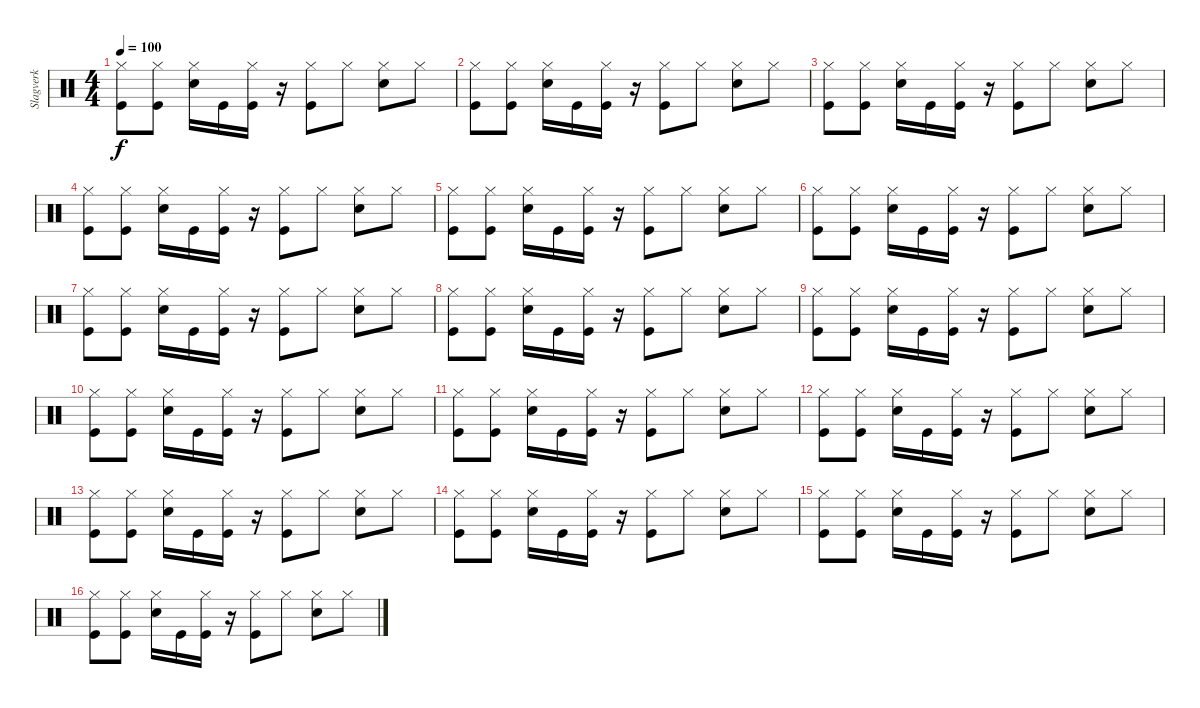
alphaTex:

\track ("Slagverk" "Slagverk") {instrument percussion}
\staff {score}
\articulation defaults
\ts (4 4)
\tempo 100
\clef neutral
\ks c
("Hi-Hat (closed)" "Kick (hit)").8{dy f} ("Hi-Hat (closed)" "Kick (hit)").8 ("Hi-Hat (closed)" "Snare (hit) 2").16 "Kick (hit)".16 ("Hi-Hat (closed)" "Kick (hit)").16 r.16 ("Hi-Hat (closed)" "Kick (hit)").8 "Hi-Hat (closed)".8 ("Hi-Hat (closed)" "Snare (hit) 2").8 "Hi-Hat (closed)".8 |
("Hi-Hat (closed)" "Kick (hit)").8 ("Hi-Hat (closed)" "Kick (hit)").8 ("Hi-Hat (closed)" "Snare (hit) 2").16 "Kick (hit)".16 ("Hi-Hat (closed)" "Kick (hit)").16 r.16 ("Hi-Hat (closed)" "Kick (hit)").8 "Hi-Hat (closed)".8 ("Hi-Hat (closed)" "Snare (hit) 2").8 "Hi-Hat (closed)".8 |
("Hi-Hat (closed)" "Kick (hit)").8 ("Hi-Hat (closed)" "Kick (hit)").8 ("Hi-Hat (closed)" "Snare (hit) 2").16 "Kick (hit)".16 ("Hi-Hat (closed)" "Kick (hit)").16 r.16 ("Hi-Hat (closed)" "Kick (hit)").8 "Hi-Hat (closed)".8 ("Hi-Hat (closed)" "Snare (hit) 2").8 "Hi-Hat (closed)".8 |
("Hi-Hat (closed)" "Kick (hit)").8 ("Hi-Hat (closed)" "Kick (hit)").8 ("Hi-Hat (closed)" "Snare (hit) 2").16 "Kick (hit)".16 ("Hi-Hat (closed)" "Kick (hit)").16 r.16 ("Hi-Hat (closed)" "Kick (hit)").8 "Hi-Hat (closed)".8 ("Hi-Hat (closed)" "Snare (hit) 2").8 "Hi-Hat (closed)".8 |
("Hi-Hat (closed)" "Kick (hit)").8 ("Hi-Hat (closed)" "Kick (hit)").8 ("Hi-Hat (closed)" "Snare (hit) 2").16 "Kick (hit)".16 ("Hi-Hat (closed)" "Kick (hit)").16 r.16 ("Hi-Hat (closed)" "Kick (hit)").8 "Hi-Hat (closed)".8 ("Hi-Hat (closed)" "Snare (hit) 2").8 "Hi-Hat (closed)".8 |
("Hi-Hat (closed)" "Kick (hit)").8 ("Hi-Hat (closed)" "Kick (hit)").8 ("Hi-Hat (closed)" "Snare (hit) 2").16 "Kick (hit)".16 ("Hi-Hat (closed)" "Kick (hit)").16 r.16 ("Hi-Hat (closed)" "Kick (hit)").8 "Hi-Hat (closed)".8 ("Hi-Hat (closed)" "Snare (hit) 2").8 "Hi-Hat (closed)".8 |
("Hi-Hat (closed)" "Kick (hit)").8 ("Hi-Hat (closed)" "Kick (hit)").8 ("Hi-Hat (closed)" "Snare (hit) 2").16 "Kick (hit)".16 ("Hi-Hat (closed)" "Kick (hit)").16 r.16 ("Hi-Hat (closed)" "Kick (hit)").8 "Hi-Hat (closed)".8 ("Hi-Hat (closed)" "Snare (hit) 2").8 "Hi-Hat (closed)".8 |
("Hi-Hat (closed)" "Kick (hit)").8 ("Hi-Hat (closed)" "Kick (hit)").8 ("Hi-Hat (closed)" "Snare (hit) 2").16 "Kick (hit)".16 ("Hi-Hat (closed)" "Kick (hit)").16 r.16 ("Hi-Hat (closed)" "Kick (hit)").8 "Hi-Hat (closed)".8 ("Hi-Hat (closed)" "Snare (hit) 2").8 "Hi-Hat (closed)".8 |
("Hi-Hat (closed)" "Kick (hit)").8 ("Hi-Hat (closed)" "Kick (hit)").8 ("Hi-Hat (closed)" "Snare (hit) 2").16 "Kick (hit)".16 ("Hi-Hat (closed)" "Kick (hit)").16 r.16 ("Hi-Hat (closed)" "Kick (hit)").8 "Hi-Hat (closed)".8 ("Hi-Hat (closed)" "Snare (hit) 2").8 "Hi-Hat (closed)".8 |
("Hi-Hat (closed)" "Kick (hit)").8 ("Hi-Hat (closed)" "Kick (hit)").8 ("Hi-Hat (closed)" "Snare (hit) 2").16 "Kick (hit)".16 ("Hi-Hat (closed)" "Kick (hit)").16 r.16 ("Hi-Hat (closed)" "Kick (hit)").8 "Hi-Hat (closed)".8 ("Hi-Hat (closed)" "Snare (hit) 2").8 "Hi-Hat (closed)".8 |
("Hi-Hat (closed)" "Kick (hit)").8 ("Hi-Hat (closed)" "Kick (hit)").8 ("Hi-Hat (closed)" "Snare (hit) 2").16 "Kick (hit)".16 ("Hi-Hat (closed)" "Kick (hit)").16 r.16 ("Hi-Hat (closed)" "Kick (hit)").8 "Hi-Hat (closed)".8 ("Hi-Hat (closed)" "Snare (hit) 2").8 "Hi-Hat (closed)".8 |
("Hi-Hat (closed)" "Kick (hit)").8 ("Hi-Hat (closed)" "Kick (hit)").8 ("Hi-Hat (closed)" "Snare (hit) 2").16 "Kick (hit)".16 ("Hi-Hat (closed)" "Kick (hit)").16 r.16 ("Hi-Hat (closed)" "Kick (hit)").8 "Hi-Hat (closed)".8 ("Hi-Hat (closed)" "Snare (hit) 2").8 "Hi-Hat (closed)".8 |
("Hi-Hat (closed)" "Kick (hit)").8 ("Hi-Hat (closed)" "Kick (hit)").8 ("Hi-Hat (closed)" "Snare (hit) 2").16 "Kick (hit)".16 ("Hi-Hat (closed)" "Kick (hit)").16 r.16 ("Hi-Hat (closed)" "Kick (hit)").8 "Hi-Hat (closed)".8 ("Hi-Hat (closed)" "Snare (hit) 2").8 "Hi-Hat (closed)".8 |
("Hi-Hat (closed)" "Kick (hit)").8 ("Hi-Hat (closed)" "Kick (hit)").8 ("Hi-Hat (closed)" "Snare (hit) 2").16 "Kick (hit)".16 ("Hi-Hat (closed)" "Kick (hit)").16 r.16 ("Hi-Hat (closed)" "Kick (hit)").8 "Hi-Hat (closed)".8 ("Hi-Hat (closed)" "Snare (hit) 2").8 "Hi-Hat (closed)".8 |
("Hi-Hat (closed)" "Kick (hit)").8 ("Hi-Hat (closed)" "Kick (hit)").8 ("Hi-Hat (closed)" "Snare (hit) 2").16 "Kick (hit)".16 ("Hi-Hat (closed)" "Kick (hit)").16 r.16 ("Hi-Hat (closed)" "Kick (hit)").8 "Hi-Hat (closed)".8 ("Hi-Hat (closed)" "Snare (hit) 2").8 "Hi-Hat (closed)".8 |
("Hi-Hat (closed)" "Kick (hit)").8 ("Hi-Hat (closed)" "Kick (hit)").8 ("Hi-Hat (closed)" "Snare (hit) 2").16 "Kick (hit)".16 ("Hi-Hat (closed)" "Kick (hit)").16 r.16 ("Hi-Hat (closed)" "Kick (hit)").8 "Hi-Hat (closed)".8 ("Hi-Hat (closed)" "Snare (hit) 2").8 "Hi-Hat (closed)".8
